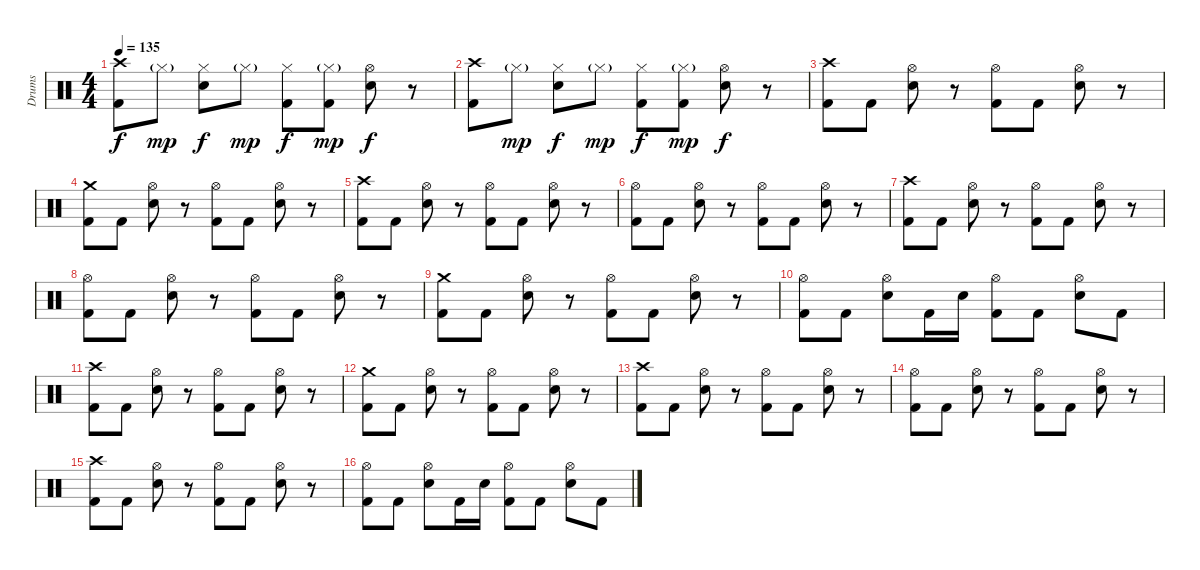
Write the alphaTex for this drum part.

\track ("Drums" "Drums") {instrument percussion}
\staff {score}
\articulation defaults
\ts (4 4)
\tempo 135
\clef neutral
\ks c
("Crash high (hit)" "Kick (hit) 2").8{dy f} "Hi-Hat (closed)"{g}.8{dy mp} ("Hi-Hat (closed)" "Electric Snare (hit)").8{dy f} "Hi-Hat (closed)"{g}.8{dy mp} ("Hi-Hat (closed)" "Kick (hit) 2").8{dy f} ("Hi-Hat (closed)"{g} "Kick (hit) 2").8{dy mp} ("Hi-Hat (open)" "Electric Snare (hit)").8{dy f} r.8 |
("Crash high (hit)" "Kick (hit) 2").8 "Hi-Hat (closed)"{g}.8{dy mp} ("Hi-Hat (closed)" "Electric Snare (hit)").8{dy f} "Hi-Hat (closed)"{g}.8{dy mp} ("Hi-Hat (closed)" "Kick (hit) 2").8{dy f} ("Hi-Hat (closed)"{g} "Kick (hit) 2").8{dy mp} ("Hi-Hat (open)" "Electric Snare (hit)").8{dy f} r.8 |
("Crash high (hit)" "Kick (hit) 2").8 "Kick (hit) 2".8 ("Hi-Hat (open)" "Electric Snare (hit)").8 r.8 ("Hi-Hat (open)" "Kick (hit) 2").8 "Kick (hit) 2".8 ("Hi-Hat (open)" "Electric Snare (hit)").8 r.8 |
("Crash medium (hit)" "Kick (hit) 2").8 "Kick (hit) 2".8 ("Hi-Hat (open)" "Electric Snare (hit)").8 r.8 ("Hi-Hat (open)" "Kick (hit) 2").8 "Kick (hit) 2".8 ("Hi-Hat (open)" "Electric Snare (hit)").8 r.8 |
("Crash high (hit)" "Kick (hit) 2").8 "Kick (hit) 2".8 ("Hi-Hat (open)" "Electric Snare (hit)").8 r.8 ("Hi-Hat (open)" "Kick (hit) 2").8 "Kick (hit) 2".8 ("Hi-Hat (open)" "Electric Snare (hit)").8 r.8 |
("Hi-Hat (open)" "Kick (hit) 2").8 "Kick (hit) 2".8 ("Hi-Hat (open)" "Electric Snare (hit)").8 r.8 ("Hi-Hat (open)" "Kick (hit) 2").8 "Kick (hit) 2".8 ("Hi-Hat (open)" "Electric Snare (hit)").8 r.8 |
("Crash high (hit)" "Kick (hit) 2").8 "Kick (hit) 2".8 ("Hi-Hat (open)" "Electric Snare (hit)").8 r.8 ("Hi-Hat (open)" "Kick (hit) 2").8 "Kick (hit) 2".8 ("Hi-Hat (open)" "Electric Snare (hit)").8 r.8 |
("Hi-Hat (open)" "Kick (hit) 2").8 "Kick (hit) 2".8 ("Hi-Hat (open)" "Electric Snare (hit)").8 r.8 ("Hi-Hat (open)" "Kick (hit) 2").8 "Kick (hit) 2".8 ("Hi-Hat (open)" "Electric Snare (hit)").8 r.8 |
("Crash medium (hit)" "Kick (hit) 2").8 "Kick (hit) 2".8 ("Hi-Hat (open)" "Electric Snare (hit)").8 r.8 ("Hi-Hat (open)" "Kick (hit) 2").8 "Kick (hit) 2".8 ("Hi-Hat (open)" "Electric Snare (hit)").8 r.8 |
("Hi-Hat (open)" "Kick (hit) 2").8 "Kick (hit) 2".8 ("Hi-Hat (open)" "Electric Snare (hit)").8 "Kick (hit) 2".16 "Electric Snare (hit)".16 ("Hi-Hat (open)" "Kick (hit) 2").8 "Kick (hit) 2".8 ("Hi-Hat (open)" "Electric Snare (hit)").8 "Kick (hit) 2".8 |
("Crash high (hit)" "Kick (hit) 2").8 "Kick (hit) 2".8 ("Hi-Hat (open)" "Electric Snare (hit)").8 r.8 ("Hi-Hat (open)" "Kick (hit) 2").8 "Kick (hit) 2".8 ("Hi-Hat (open)" "Electric Snare (hit)").8 r.8 |
("Crash medium (hit)" "Kick (hit) 2").8 "Kick (hit) 2".8 ("Hi-Hat (open)" "Electric Snare (hit)").8 r.8 ("Hi-Hat (open)" "Kick (hit) 2").8 "Kick (hit) 2".8 ("Hi-Hat (open)" "Electric Snare (hit)").8 r.8 |
("Crash high (hit)" "Kick (hit) 2").8 "Kick (hit) 2".8 ("Hi-Hat (open)" "Electric Snare (hit)").8 r.8 ("Hi-Hat (open)" "Kick (hit) 2").8 "Kick (hit) 2".8 ("Hi-Hat (open)" "Electric Snare (hit)").8 r.8 |
("Hi-Hat (open)" "Kick (hit) 2").8 "Kick (hit) 2".8 ("Hi-Hat (open)" "Electric Snare (hit)").8 r.8 ("Hi-Hat (open)" "Kick (hit) 2").8 "Kick (hit) 2".8 ("Hi-Hat (open)" "Electric Snare (hit)").8 r.8 |
("Crash high (hit)" "Kick (hit) 2").8 "Kick (hit) 2".8 ("Hi-Hat (open)" "Electric Snare (hit)").8 r.8 ("Hi-Hat (open)" "Kick (hit) 2").8 "Kick (hit) 2".8 ("Hi-Hat (open)" "Electric Snare (hit)").8 r.8 |
("Hi-Hat (open)" "Kick (hit) 2").8 "Kick (hit) 2".8 ("Hi-Hat (open)" "Electric Snare (hit)").8 "Kick (hit) 2".16 "Electric Snare (hit)".16 ("Hi-Hat (open)" "Kick (hit) 2").8 "Kick (hit) 2".8 ("Hi-Hat (open)" "Electric Snare (hit)").8 "Kick (hit) 2".8
